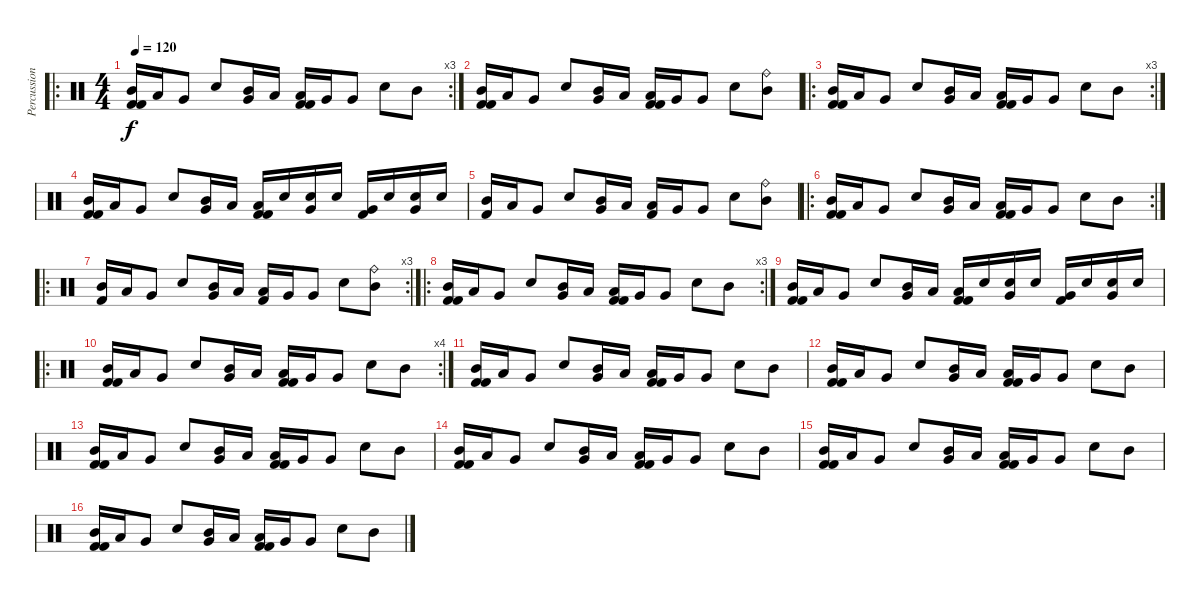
\track ("Percussions" "Percussion") {instrument percussion}
\staff {score}
\articulation defaults
\ro
\rc 3
\ts (4 4)
\tempo 120
\clef neutral
\ks c
("Kick (hit) 2" "Mid Tom (hit)" "Kick (hit) 2").16{dy f} "Low Tom (hit)".16 "Very Low Tom (hit)".8 "Snare (hit) 2".8 ("Mid Tom (hit)" "Very Low Tom (hit)").16 "Low Tom (hit)".16 ("Kick (hit) 2" "Low Tom (hit)" "Kick (hit) 2").16 "Very Low Tom (hit)".16 "Very Low Tom (hit)".8 "Snare (hit) 2".8 "Mid Tom (hit)".8 |
("Kick (hit) 2" "Mid Tom (hit)" "Kick (hit) 2").16 "Low Tom (hit)".16 "Very Low Tom (hit)".8 "Snare (hit) 2".8 ("Mid Tom (hit)" "Very Low Tom (hit)").16 "Low Tom (hit)".16 ("Kick (hit) 2" "Low Tom (hit)" "Kick (hit) 2").16 "Very Low Tom (hit)".16 "Very Low Tom (hit)".8 "Snare (hit) 2".8 ("Ride (bell)" "Mid Tom (hit)").8 |
\ro
\rc 3
("Kick (hit) 2" "Mid Tom (hit)" "Kick (hit) 2").16 "Low Tom (hit)".16 "Very Low Tom (hit)".8 "Snare (hit) 2".8 ("Mid Tom (hit)" "Very Low Tom (hit)").16 "Low Tom (hit)".16 ("Kick (hit) 2" "Low Tom (hit)" "Kick (hit) 2").16 "Very Low Tom (hit)".16 "Very Low Tom (hit)".8 "Snare (hit) 2".8 "Mid Tom (hit)".8 |
("Kick (hit) 2" "Mid Tom (hit)" "Kick (hit) 2").16 "Low Tom (hit)".16 "Very Low Tom (hit)".8 "Snare (hit) 2".8 ("Mid Tom (hit)" "Very Low Tom (hit)").16 "Low Tom (hit)".16 ("Kick (hit) 2" "Low Tom (hit)" "Kick (hit) 2").16 "Snare (hit) 2".16 ("Snare (hit) 2" "Very Low Tom (hit)").16 "Snare (hit) 2".16 ("Very Low Tom (hit)" "Kick (hit) 2").16 "Snare (hit) 2".16 ("Snare (hit) 2" "Very Low Tom (hit)").16 "Snare (hit) 2".16 |
("Mid Tom (hit)" "Kick (hit) 2").16 "Low Tom (hit)".16 "Very Low Tom (hit)".8 "Snare (hit) 2".8 ("Mid Tom (hit)" "Very Low Tom (hit)").16 "Low Tom (hit)".16 ("Low Tom (hit)" "Kick (hit) 2").16 "Very Low Tom (hit)".16 "Very Low Tom (hit)".8 "Snare (hit) 2".8 ("Ride (bell)" "Mid Tom (hit)").8 |
\ro
\rc 2
("Kick (hit) 2" "Mid Tom (hit)" "Kick (hit) 2").16 "Low Tom (hit)".16 "Very Low Tom (hit)".8 "Snare (hit) 2".8 ("Mid Tom (hit)" "Very Low Tom (hit)").16 "Low Tom (hit)".16 ("Kick (hit) 2" "Low Tom (hit)" "Kick (hit) 2").16 "Very Low Tom (hit)".16 "Very Low Tom (hit)".8 "Snare (hit) 2".8 "Mid Tom (hit)".8 |
\ro
\rc 3
("Mid Tom (hit)" "Kick (hit) 2").16 "Low Tom (hit)".16 "Very Low Tom (hit)".8 "Snare (hit) 2".8 ("Mid Tom (hit)" "Very Low Tom (hit)").16 "Low Tom (hit)".16 ("Low Tom (hit)" "Kick (hit) 2").16 "Very Low Tom (hit)".16 "Very Low Tom (hit)".8 "Snare (hit) 2".8 ("Ride (bell)" "Mid Tom (hit)").8 |
\ro
\rc 3
("Kick (hit) 2" "Mid Tom (hit)" "Kick (hit) 2").16 "Low Tom (hit)".16 "Very Low Tom (hit)".8 "Snare (hit) 2".8 ("Mid Tom (hit)" "Very Low Tom (hit)").16 "Low Tom (hit)".16 ("Kick (hit) 2" "Low Tom (hit)" "Kick (hit) 2").16 "Very Low Tom (hit)".16 "Very Low Tom (hit)".8 "Snare (hit) 2".8 "Mid Tom (hit)".8 |
("Kick (hit) 2" "Mid Tom (hit)" "Kick (hit) 2").16 "Low Tom (hit)".16 "Very Low Tom (hit)".8 "Snare (hit) 2".8 ("Mid Tom (hit)" "Very Low Tom (hit)").16 "Low Tom (hit)".16 ("Kick (hit) 2" "Low Tom (hit)" "Kick (hit) 2").16 "Snare (hit) 2".16 ("Snare (hit) 2" "Very Low Tom (hit)").16 "Snare (hit) 2".16 ("Very Low Tom (hit)" "Kick (hit) 2").16 "Snare (hit) 2".16 ("Snare (hit) 2" "Very Low Tom (hit)").16 "Snare (hit) 2".16 |
\ro
\rc 4
("Kick (hit) 2" "Mid Tom (hit)" "Kick (hit) 2").16 "Low Tom (hit)".16 "Very Low Tom (hit)".8 "Snare (hit) 2".8 ("Mid Tom (hit)" "Very Low Tom (hit)").16 "Low Tom (hit)".16 ("Kick (hit) 2" "Low Tom (hit)" "Kick (hit) 2").16 "Very Low Tom (hit)".16 "Very Low Tom (hit)".8 "Snare (hit) 2".8 "Mid Tom (hit)".8 |
("Kick (hit) 2" "Mid Tom (hit)" "Kick (hit) 2").16 "Low Tom (hit)".16 "Very Low Tom (hit)".8 "Snare (hit) 2".8 ("Mid Tom (hit)" "Very Low Tom (hit)").16 "Low Tom (hit)".16 ("Kick (hit) 2" "Low Tom (hit)" "Kick (hit) 2").16 "Very Low Tom (hit)".16 "Very Low Tom (hit)".8 "Snare (hit) 2".8 "Mid Tom (hit)".8 |
("Kick (hit) 2" "Mid Tom (hit)" "Kick (hit) 2").16 "Low Tom (hit)".16 "Very Low Tom (hit)".8 "Snare (hit) 2".8 ("Mid Tom (hit)" "Very Low Tom (hit)").16 "Low Tom (hit)".16 ("Kick (hit) 2" "Low Tom (hit)" "Kick (hit) 2").16 "Very Low Tom (hit)".16 "Very Low Tom (hit)".8 "Snare (hit) 2".8 "Mid Tom (hit)".8 |
("Kick (hit) 2" "Mid Tom (hit)" "Kick (hit) 2").16 "Low Tom (hit)".16 "Very Low Tom (hit)".8 "Snare (hit) 2".8 ("Mid Tom (hit)" "Very Low Tom (hit)").16 "Low Tom (hit)".16 ("Kick (hit) 2" "Low Tom (hit)" "Kick (hit) 2").16 "Very Low Tom (hit)".16 "Very Low Tom (hit)".8 "Snare (hit) 2".8 "Mid Tom (hit)".8 |
("Kick (hit) 2" "Mid Tom (hit)" "Kick (hit) 2").16 "Low Tom (hit)".16 "Very Low Tom (hit)".8 "Snare (hit) 2".8 ("Mid Tom (hit)" "Very Low Tom (hit)").16 "Low Tom (hit)".16 ("Kick (hit) 2" "Low Tom (hit)" "Kick (hit) 2").16 "Very Low Tom (hit)".16 "Very Low Tom (hit)".8 "Snare (hit) 2".8 "Mid Tom (hit)".8 |
("Kick (hit) 2" "Mid Tom (hit)" "Kick (hit) 2").16 "Low Tom (hit)".16 "Very Low Tom (hit)".8 "Snare (hit) 2".8 ("Mid Tom (hit)" "Very Low Tom (hit)").16 "Low Tom (hit)".16 ("Kick (hit) 2" "Low Tom (hit)" "Kick (hit) 2").16 "Very Low Tom (hit)".16 "Very Low Tom (hit)".8 "Snare (hit) 2".8 "Mid Tom (hit)".8 |
("Kick (hit) 2" "Mid Tom (hit)" "Kick (hit) 2").16 "Low Tom (hit)".16 "Very Low Tom (hit)".8 "Snare (hit) 2".8 ("Mid Tom (hit)" "Very Low Tom (hit)").16 "Low Tom (hit)".16 ("Kick (hit) 2" "Low Tom (hit)" "Kick (hit) 2").16 "Very Low Tom (hit)".16 "Very Low Tom (hit)".8 "Snare (hit) 2".8 "Mid Tom (hit)".8
